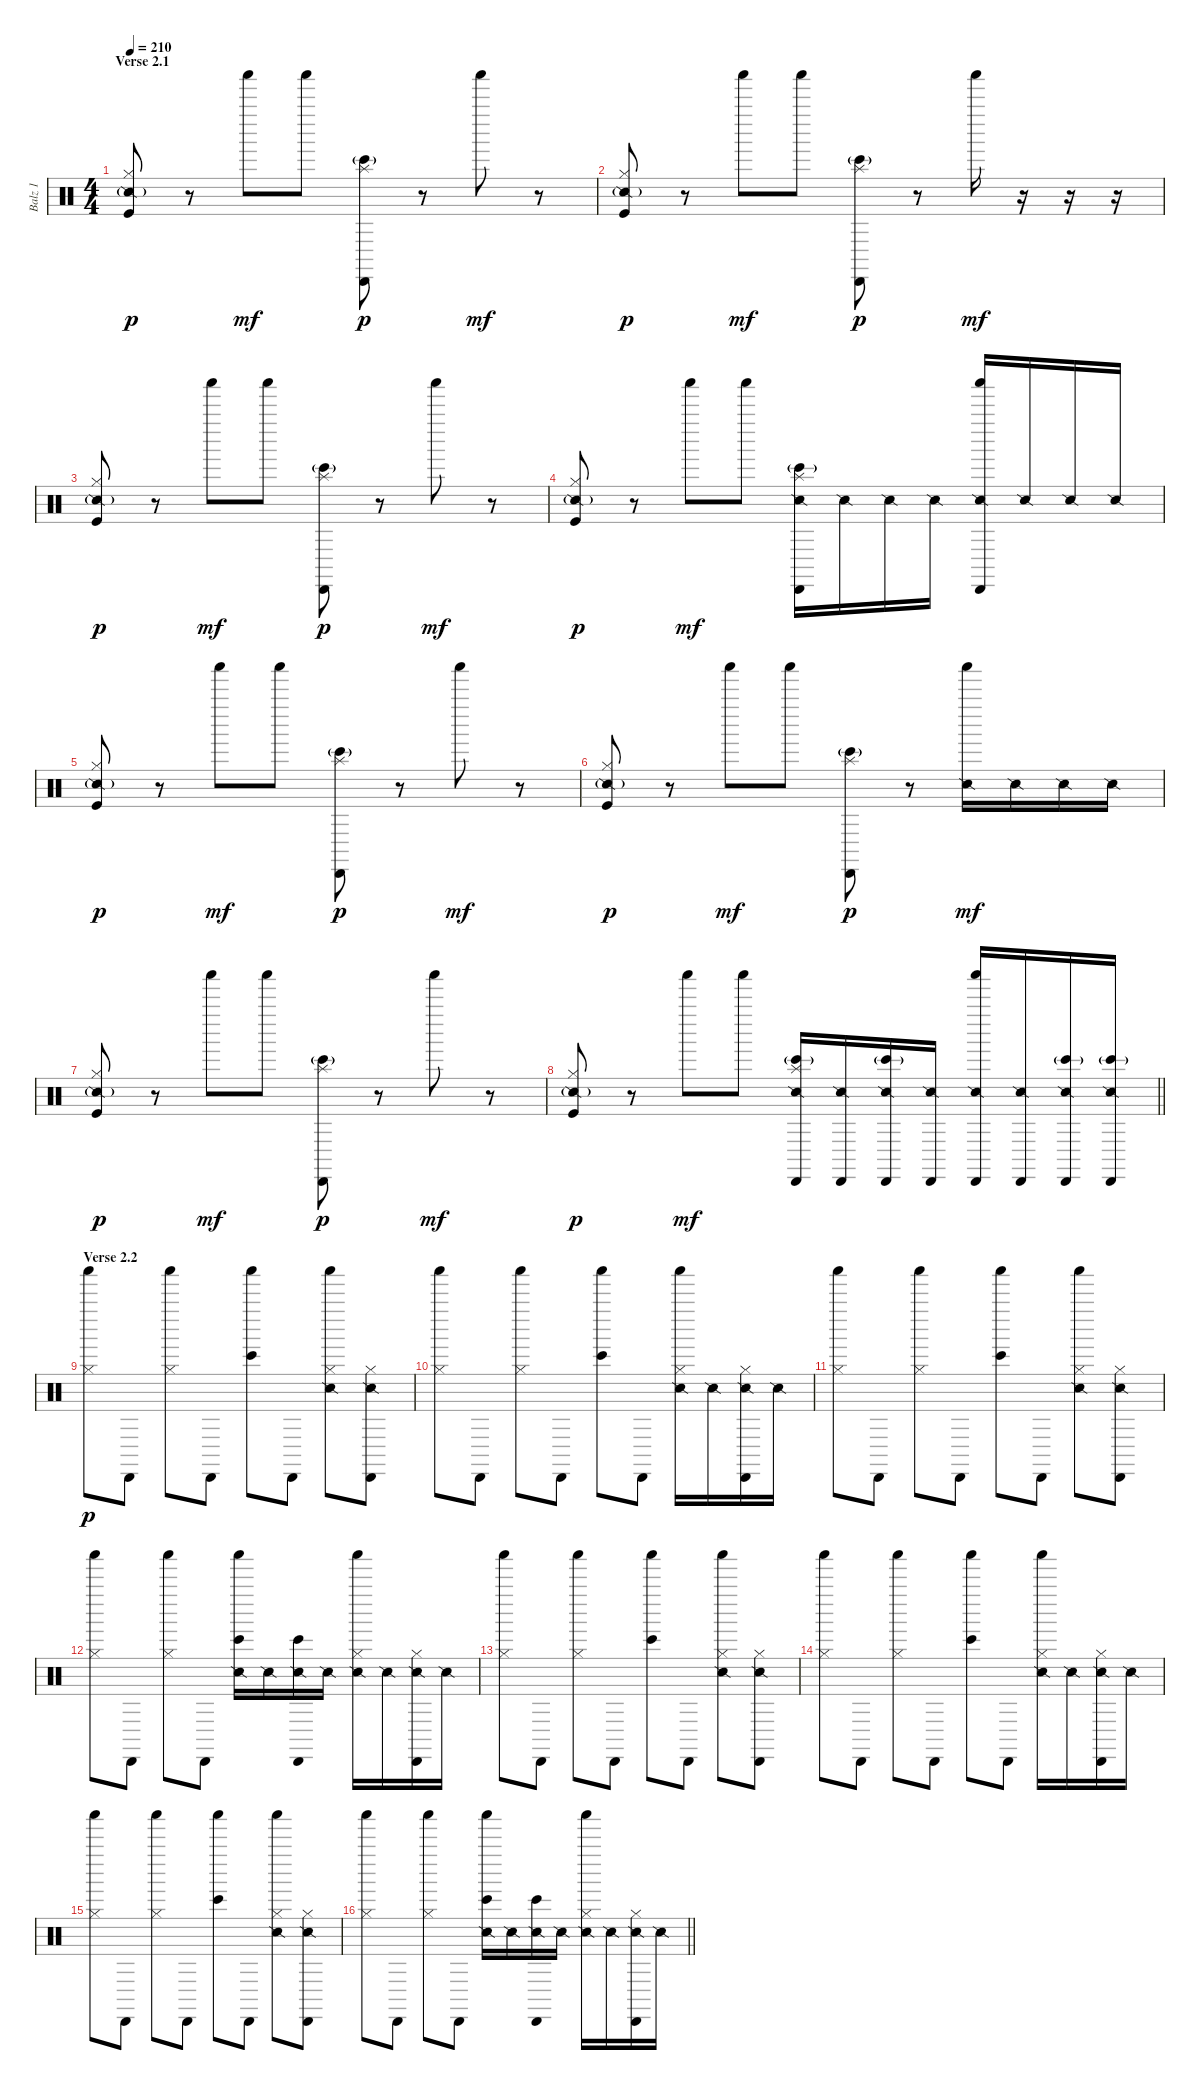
\track ("Balz 1" "Balz 1") {instrument percussion}
\staff {score}
\articulation defaults
\ts (4 4)
\section ("" "Verse 2.1")
\tempo 210
\clef neutral
\ks c
("Kick (hit)" "Hi-Hat (closed)" "Snare (side stick) 2"{g}).8{dy p} r.8 "Shaker (hit)".8{dy mf} "Shaker (hit)".8 ("Splash (hit)" "Cabasa (hit)" "Bongo High (hit)"{g}).8{dy p} r.8 "Shaker (hit)".8{dy mf} r.8 |
("Kick (hit)" "Hi-Hat (closed)" "Snare (side stick) 2"{g}).8{dy p} r.8 "Shaker (hit)".8{dy mf} "Shaker (hit)".8 ("Splash (hit)" "Cabasa (hit)" "Bongo High (hit)"{g}).8{dy p} r.8 "Shaker (hit)".16{dy mf} r.16 r.16 r.16 |
("Kick (hit)" "Hi-Hat (closed)" "Snare (side stick) 2"{g}).8{dy p} r.8 "Shaker (hit)".8{dy mf} "Shaker (hit)".8 ("Splash (hit)" "Cabasa (hit)" "Bongo High (hit)"{g}).8{dy p} r.8 "Shaker (hit)".8{dy mf} r.8 |
("Kick (hit)" "Hi-Hat (closed)" "Snare (side stick) 2"{g}).8{dy p} r.8 "Shaker (hit)".8{dy mf} "Shaker (hit)".8 ("Splash (hit)" "Cabasa (hit)" "Bongo High (hit)"{g} "Snare (side stick) 2").16 "Snare (side stick) 2".16 "Snare (side stick) 2".16 "Snare (side stick) 2".16 ("Cabasa (hit)" "Shaker (hit)" "Snare (side stick) 2").16 "Snare (side stick) 2".16 "Snare (side stick) 2".16 "Snare (side stick) 2".16 |
("Kick (hit)" "Hi-Hat (closed)" "Snare (side stick) 2"{g}).8{dy p} r.8 "Shaker (hit)".8{dy mf} "Shaker (hit)".8 ("Splash (hit)" "Cabasa (hit)" "Bongo High (hit)"{g}).8{dy p} r.8 "Shaker (hit)".8{dy mf} r.8 |
("Kick (hit)" "Hi-Hat (closed)" "Snare (side stick) 2"{g}).8{dy p} r.8 "Shaker (hit)".8{dy mf} "Shaker (hit)".8 ("Splash (hit)" "Cabasa (hit)" "Bongo High (hit)"{g}).8{dy p} r.8 ("Shaker (hit)" "Snare (side stick) 2").16{dy mf} "Snare (side stick) 2".16 "Snare (side stick) 2".16 "Snare (side stick) 2".16 |
("Kick (hit)" "Hi-Hat (closed)" "Snare (side stick) 2"{g}).8{dy p} r.8 "Shaker (hit)".8{dy mf} "Shaker (hit)".8 ("Splash (hit)" "Cabasa (hit)" "Bongo High (hit)"{g}).8{dy p} r.8 "Shaker (hit)".8{dy mf} r.8 |
\barLineRight lightlight
("Kick (hit)" "Hi-Hat (closed)" "Snare (side stick) 2"{g}).8{dy p} r.8 "Shaker (hit)".8{dy mf} "Shaker (hit)".8 ("Splash (hit)" "Cabasa (hit)" "Bongo High (hit)"{g} "Snare (side stick) 2").16 ("Cabasa (hit)" "Snare (side stick) 2").16 ("Cabasa (hit)" "Bongo High (hit)"{g} "Snare (side stick) 2").16 ("Cabasa (hit)" "Snare (side stick) 2").16 ("Cabasa (hit)" "Shaker (hit)" "Snare (side stick) 2").16 ("Cabasa (hit)" "Snare (side stick) 2").16 ("Cabasa (hit)" "Bongo High (hit)"{g} "Snare (side stick) 2").16 ("Cabasa (hit)" "Bongo High (hit)"{g} "Snare (side stick) 2").16 |
\section ("" "Verse 2.2")
("Shaker (hit)" "Hi-Hat (closed)").8{dy p} "Cabasa (hit)".8 ("Shaker (hit)" "Hi-Hat (closed)").8 "Cabasa (hit)".8 ("Shaker (hit)" "Bongo High (hit)").8 "Cabasa (hit)".8 ("Shaker (hit)" "Hi-Hat (closed)" "Snare (side stick) 2").8 ("Cabasa (hit)" "Hi-Hat (closed)" "Snare (side stick) 2").8 |
("Shaker (hit)" "Hi-Hat (closed)").8 "Cabasa (hit)".8 ("Shaker (hit)" "Hi-Hat (closed)").8 "Cabasa (hit)".8 ("Shaker (hit)" "Bongo High (hit)").8 "Cabasa (hit)".8 ("Shaker (hit)" "Hi-Hat (closed)" "Snare (side stick) 2").16 "Snare (side stick) 2".16 ("Cabasa (hit)" "Hi-Hat (closed)" "Snare (side stick) 2").16 "Snare (side stick) 2".16 |
("Shaker (hit)" "Hi-Hat (closed)").8 "Cabasa (hit)".8 ("Shaker (hit)" "Hi-Hat (closed)").8 "Cabasa (hit)".8 ("Shaker (hit)" "Bongo High (hit)").8 "Cabasa (hit)".8 ("Shaker (hit)" "Hi-Hat (closed)" "Snare (side stick) 2").8 ("Cabasa (hit)" "Hi-Hat (closed)" "Snare (side stick) 2").8 |
("Shaker (hit)" "Hi-Hat (closed)").8 "Cabasa (hit)".8 ("Shaker (hit)" "Hi-Hat (closed)").8 "Cabasa (hit)".8 ("Shaker (hit)" "Bongo High (hit)" "Snare (side stick) 2").16 "Snare (side stick) 2".16 ("Cabasa (hit)" "Bongo High (hit)" "Snare (side stick) 2").16 "Snare (side stick) 2".16 ("Shaker (hit)" "Hi-Hat (closed)" "Snare (side stick) 2").16 "Snare (side stick) 2".16 ("Cabasa (hit)" "Hi-Hat (closed)" "Snare (side stick) 2").16 "Snare (side stick) 2".16 |
("Shaker (hit)" "Hi-Hat (closed)").8 "Cabasa (hit)".8 ("Shaker (hit)" "Hi-Hat (closed)").8 "Cabasa (hit)".8 ("Shaker (hit)" "Bongo High (hit)").8 "Cabasa (hit)".8 ("Shaker (hit)" "Hi-Hat (closed)" "Snare (side stick) 2").8 ("Cabasa (hit)" "Hi-Hat (closed)" "Snare (side stick) 2").8 |
("Shaker (hit)" "Hi-Hat (closed)").8 "Cabasa (hit)".8 ("Shaker (hit)" "Hi-Hat (closed)").8 "Cabasa (hit)".8 ("Shaker (hit)" "Bongo High (hit)").8 "Cabasa (hit)".8 ("Shaker (hit)" "Hi-Hat (closed)" "Snare (side stick) 2").16 "Snare (side stick) 2".16 ("Cabasa (hit)" "Hi-Hat (closed)" "Snare (side stick) 2").16 "Snare (side stick) 2".16 |
("Shaker (hit)" "Hi-Hat (closed)").8 "Cabasa (hit)".8 ("Shaker (hit)" "Hi-Hat (closed)").8 "Cabasa (hit)".8 ("Shaker (hit)" "Bongo High (hit)").8 "Cabasa (hit)".8 ("Shaker (hit)" "Hi-Hat (closed)" "Snare (side stick) 2").8 ("Cabasa (hit)" "Hi-Hat (closed)" "Snare (side stick) 2").8 |
\barLineRight lightlight
("Shaker (hit)" "Hi-Hat (closed)").8 "Cabasa (hit)".8 ("Shaker (hit)" "Hi-Hat (closed)").8 "Cabasa (hit)".8 ("Shaker (hit)" "Bongo High (hit)" "Snare (side stick) 2").16 "Snare (side stick) 2".16 ("Cabasa (hit)" "Bongo High (hit)" "Snare (side stick) 2").16 "Snare (side stick) 2".16 ("Shaker (hit)" "Hi-Hat (closed)" "Snare (side stick) 2").16 "Snare (side stick) 2".16 ("Cabasa (hit)" "Hi-Hat (closed)" "Snare (side stick) 2").16 "Snare (side stick) 2".16
